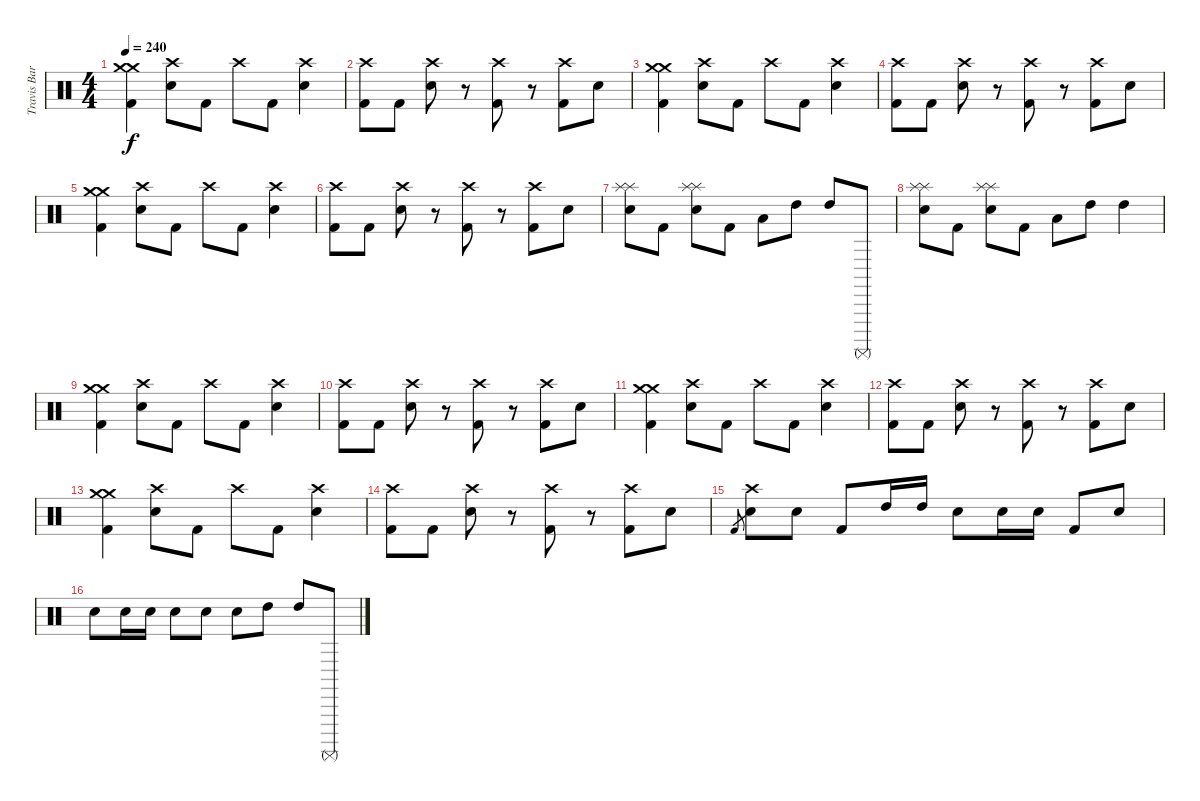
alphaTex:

\track ("Travis Barker - Drums" "Travis Bar") {instrument percussion}
\staff {score}
\articulation defaults
\ts (4 4)
\tempo 240
\clef neutral
\ks c
("Crash medium (hit)" "Crash medium (hit)" "Kick (hit) 2").4{dy f} ("Crash high (hit)" "Electric Snare (hit)").8 "Kick (hit) 2".8 "Crash high (hit)".8 "Kick (hit) 2".8 ("Crash high (hit)" "Electric Snare (hit)").4 |
("Crash high (hit)" "Kick (hit) 2").8 "Kick (hit) 2".8 ("Crash high (hit)" "Electric Snare (hit)").8 r.8 ("Crash high (hit)" "Kick (hit) 2").8 r.8 ("Crash high (hit)" "Kick (hit) 2").8 "Electric Snare (hit)".8 |
("Crash medium (hit)" "Crash medium (hit)" "Kick (hit) 2").4 ("Crash high (hit)" "Electric Snare (hit)").8 "Kick (hit) 2".8 "Crash high (hit)".8 "Kick (hit) 2".8 ("Crash high (hit)" "Electric Snare (hit)").4 |
("Crash high (hit)" "Kick (hit) 2").8 "Kick (hit) 2".8 ("Crash high (hit)" "Electric Snare (hit)").8 r.8 ("Crash high (hit)" "Kick (hit) 2").8 r.8 ("Crash high (hit)" "Kick (hit) 2").8 "Electric Snare (hit)".8 |
("Crash medium (hit)" "Crash medium (hit)" "Kick (hit) 2").4 ("Crash high (hit)" "Electric Snare (hit)").8 "Kick (hit) 2".8 "Crash high (hit)".8 "Kick (hit) 2".8 ("Crash high (hit)" "Electric Snare (hit)").4 |
("Crash high (hit)" "Kick (hit) 2").8 "Kick (hit) 2".8 ("Crash high (hit)" "Electric Snare (hit)").8 r.8 ("Crash high (hit)" "Kick (hit) 2").8 r.8 ("Crash high (hit)" "Kick (hit) 2").8 "Electric Snare (hit)".8 |
("Splash (hit)" "Splash (hit)" "Electric Snare (hit)").8 "Kick (hit) 2".8 ("Splash (hit)" "Splash (hit)" "Electric Snare (hit)").8 "Kick (hit) 2".8 "Low Tom (hit)".8 "High Tom (hit)".8 "High Tom (hit)".8 "Surdo (mute)".8 |
("Splash (hit)" "Splash (hit)" "Electric Snare (hit)").8 "Kick (hit) 2".8 ("Splash (hit)" "Splash (hit)" "Electric Snare (hit)").8 "Kick (hit) 2".8 "Low Tom (hit)".8 "High Tom (hit)".8 "High Tom (hit)".4 |
("Crash medium (hit)" "Crash medium (hit)" "Kick (hit) 2").4 ("Crash high (hit)" "Electric Snare (hit)").8 "Kick (hit) 2".8 "Crash high (hit)".8 "Kick (hit) 2".8 ("Crash high (hit)" "Electric Snare (hit)").4 |
("Crash high (hit)" "Kick (hit) 2").8 "Kick (hit) 2".8 ("Crash high (hit)" "Electric Snare (hit)").8 r.8 ("Crash high (hit)" "Kick (hit) 2").8 r.8 ("Crash high (hit)" "Kick (hit) 2").8 "Electric Snare (hit)".8 |
("Crash medium (hit)" "Crash medium (hit)" "Kick (hit) 2").4 ("Crash high (hit)" "Electric Snare (hit)").8 "Kick (hit) 2".8 "Crash high (hit)".8 "Kick (hit) 2".8 ("Crash high (hit)" "Electric Snare (hit)").4 |
("Crash high (hit)" "Kick (hit) 2").8 "Kick (hit) 2".8 ("Crash high (hit)" "Electric Snare (hit)").8 r.8 ("Crash high (hit)" "Kick (hit) 2").8 r.8 ("Crash high (hit)" "Kick (hit) 2").8 "Electric Snare (hit)".8 |
("Crash medium (hit)" "Crash medium (hit)" "Kick (hit) 2").4 ("Crash high (hit)" "Electric Snare (hit)").8 "Kick (hit) 2".8 "Crash high (hit)".8 "Kick (hit) 2".8 ("Crash high (hit)" "Electric Snare (hit)").4 |
("Crash high (hit)" "Kick (hit) 2").8 "Kick (hit) 2".8 ("Crash high (hit)" "Electric Snare (hit)").8 r.8 ("Crash high (hit)" "Kick (hit) 2").8 r.8 ("Crash high (hit)" "Kick (hit) 2").8 "Electric Snare (hit)".8 |
"Kick (hit) 2".8{gr} ("Crash high (hit)" "Electric Snare (hit)").8 "Electric Snare (hit)".8 "Kick (hit) 2".8 "High Tom (hit)".16 "High Tom (hit)".16 "Electric Snare (hit)".8 "Electric Snare (hit)".16 "Electric Snare (hit)".16 "Kick (hit) 2".8 "Electric Snare (hit)".8 |
"Electric Snare (hit)".8 "Electric Snare (hit)".16 "Electric Snare (hit)".16 "Electric Snare (hit)".8 "Electric Snare (hit)".8 "Electric Snare (hit)".8 "High Tom (hit)".8 "High Tom (hit)".8 "Surdo (mute)".8
